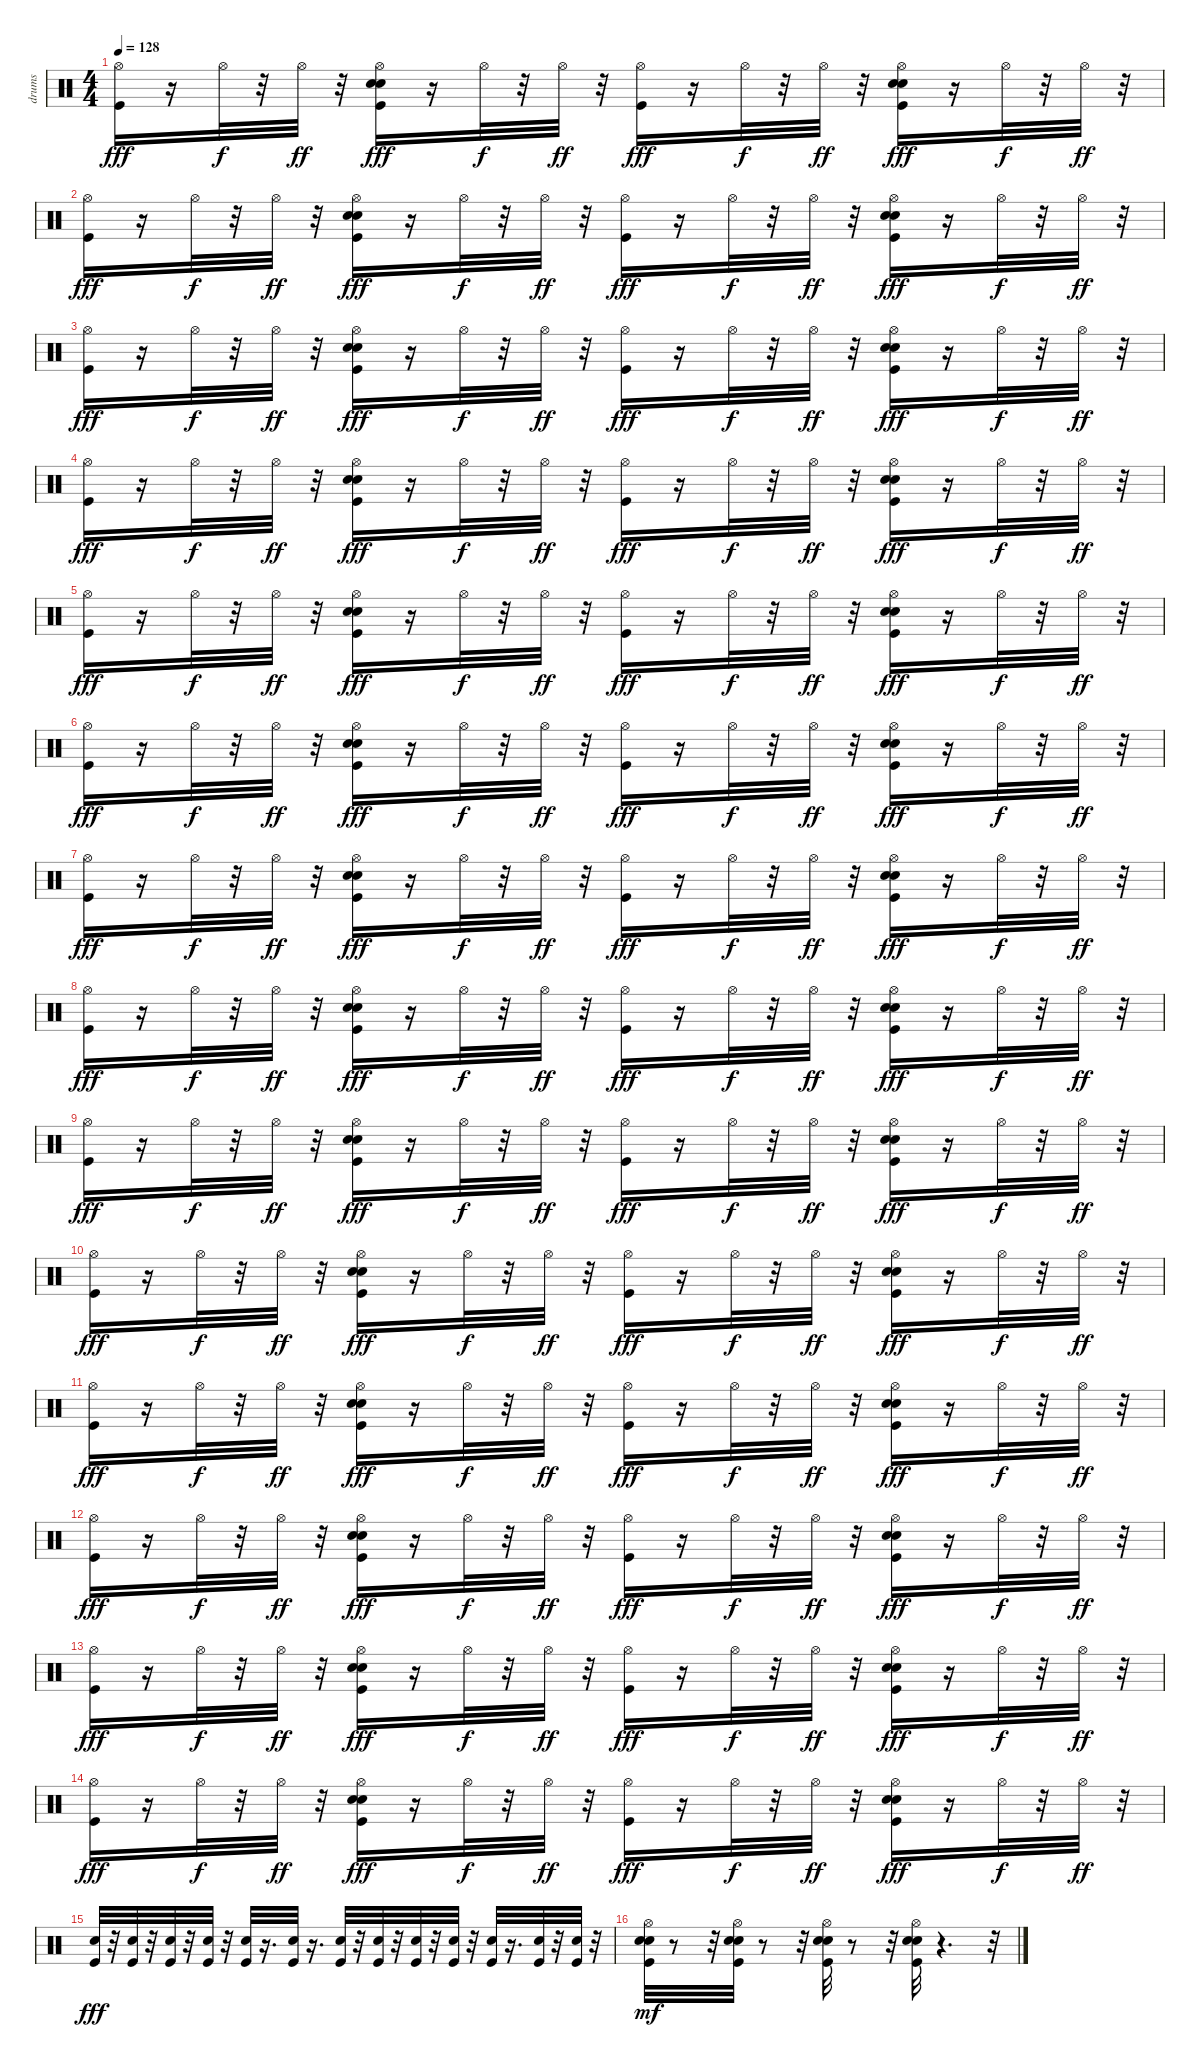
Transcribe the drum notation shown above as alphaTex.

\track ("drums" "drums") {instrument percussion}
\staff {score}
\articulation defaults
\ts (4 4)
\tempo 128
\clef neutral
\ks c
("Hi-Hat (open)" "Kick (hit)").16{dy fff} r.16 "Hi-Hat (open)".32{dy f} r.32 "Hi-Hat (open)".32{dy ff} r.32 ("Snare (hit) 2" "Electric Snare (hit)" "Kick (hit)" "Hi-Hat (open)").16{dy fff} r.16 "Hi-Hat (open)".32{dy f} r.32 "Hi-Hat (open)".32{dy ff} r.32 ("Kick (hit)" "Hi-Hat (open)").16{dy fff} r.16 "Hi-Hat (open)".32{dy f} r.32 "Hi-Hat (open)".32{dy ff} r.32 ("Kick (hit)" "Snare (hit) 2" "Electric Snare (hit)" "Hi-Hat (open)").16{dy fff} r.16 "Hi-Hat (open)".32{dy f} r.32 "Hi-Hat (open)".32{dy ff} r.32 |
("Hi-Hat (open)" "Kick (hit)").16{dy fff} r.16 "Hi-Hat (open)".32{dy f} r.32 "Hi-Hat (open)".32{dy ff} r.32 ("Snare (hit) 2" "Electric Snare (hit)" "Kick (hit)" "Hi-Hat (open)").16{dy fff} r.16 "Hi-Hat (open)".32{dy f} r.32 "Hi-Hat (open)".32{dy ff} r.32 ("Kick (hit)" "Hi-Hat (open)").16{dy fff} r.16 "Hi-Hat (open)".32{dy f} r.32 "Hi-Hat (open)".32{dy ff} r.32 ("Kick (hit)" "Snare (hit) 2" "Electric Snare (hit)" "Hi-Hat (open)").16{dy fff} r.16 "Hi-Hat (open)".32{dy f} r.32 "Hi-Hat (open)".32{dy ff} r.32 |
("Hi-Hat (open)" "Kick (hit)").16{dy fff} r.16 "Hi-Hat (open)".32{dy f} r.32 "Hi-Hat (open)".32{dy ff} r.32 ("Snare (hit) 2" "Electric Snare (hit)" "Kick (hit)" "Hi-Hat (open)").16{dy fff} r.16 "Hi-Hat (open)".32{dy f} r.32 "Hi-Hat (open)".32{dy ff} r.32 ("Kick (hit)" "Hi-Hat (open)").16{dy fff} r.16 "Hi-Hat (open)".32{dy f} r.32 "Hi-Hat (open)".32{dy ff} r.32 ("Kick (hit)" "Snare (hit) 2" "Electric Snare (hit)" "Hi-Hat (open)").16{dy fff} r.16 "Hi-Hat (open)".32{dy f} r.32 "Hi-Hat (open)".32{dy ff} r.32 |
("Hi-Hat (open)" "Kick (hit)").16{dy fff} r.16 "Hi-Hat (open)".32{dy f} r.32 "Hi-Hat (open)".32{dy ff} r.32 ("Snare (hit) 2" "Electric Snare (hit)" "Kick (hit)" "Hi-Hat (open)").16{dy fff} r.16 "Hi-Hat (open)".32{dy f} r.32 "Hi-Hat (open)".32{dy ff} r.32 ("Kick (hit)" "Hi-Hat (open)").16{dy fff} r.16 "Hi-Hat (open)".32{dy f} r.32 "Hi-Hat (open)".32{dy ff} r.32 ("Kick (hit)" "Snare (hit) 2" "Electric Snare (hit)" "Hi-Hat (open)").16{dy fff} r.16 "Hi-Hat (open)".32{dy f} r.32 "Hi-Hat (open)".32{dy ff} r.32 |
("Hi-Hat (open)" "Kick (hit)").16{dy fff} r.16 "Hi-Hat (open)".32{dy f} r.32 "Hi-Hat (open)".32{dy ff} r.32 ("Snare (hit) 2" "Electric Snare (hit)" "Kick (hit)" "Hi-Hat (open)").16{dy fff} r.16 "Hi-Hat (open)".32{dy f} r.32 "Hi-Hat (open)".32{dy ff} r.32 ("Kick (hit)" "Hi-Hat (open)").16{dy fff} r.16 "Hi-Hat (open)".32{dy f} r.32 "Hi-Hat (open)".32{dy ff} r.32 ("Kick (hit)" "Snare (hit) 2" "Electric Snare (hit)" "Hi-Hat (open)").16{dy fff} r.16 "Hi-Hat (open)".32{dy f} r.32 "Hi-Hat (open)".32{dy ff} r.32 |
("Hi-Hat (open)" "Kick (hit)").16{dy fff} r.16 "Hi-Hat (open)".32{dy f} r.32 "Hi-Hat (open)".32{dy ff} r.32 ("Snare (hit) 2" "Electric Snare (hit)" "Kick (hit)" "Hi-Hat (open)").16{dy fff} r.16 "Hi-Hat (open)".32{dy f} r.32 "Hi-Hat (open)".32{dy ff} r.32 ("Kick (hit)" "Hi-Hat (open)").16{dy fff} r.16 "Hi-Hat (open)".32{dy f} r.32 "Hi-Hat (open)".32{dy ff} r.32 ("Kick (hit)" "Snare (hit) 2" "Electric Snare (hit)" "Hi-Hat (open)").16{dy fff} r.16 "Hi-Hat (open)".32{dy f} r.32 "Hi-Hat (open)".32{dy ff} r.32 |
("Hi-Hat (open)" "Kick (hit)").16{dy fff} r.16 "Hi-Hat (open)".32{dy f} r.32 "Hi-Hat (open)".32{dy ff} r.32 ("Snare (hit) 2" "Electric Snare (hit)" "Kick (hit)" "Hi-Hat (open)").16{dy fff} r.16 "Hi-Hat (open)".32{dy f} r.32 "Hi-Hat (open)".32{dy ff} r.32 ("Kick (hit)" "Hi-Hat (open)").16{dy fff} r.16 "Hi-Hat (open)".32{dy f} r.32 "Hi-Hat (open)".32{dy ff} r.32 ("Kick (hit)" "Snare (hit) 2" "Electric Snare (hit)" "Hi-Hat (open)").16{dy fff} r.16 "Hi-Hat (open)".32{dy f} r.32 "Hi-Hat (open)".32{dy ff} r.32 |
("Hi-Hat (open)" "Kick (hit)").16{dy fff} r.16 "Hi-Hat (open)".32{dy f} r.32 "Hi-Hat (open)".32{dy ff} r.32 ("Snare (hit) 2" "Electric Snare (hit)" "Kick (hit)" "Hi-Hat (open)").16{dy fff} r.16 "Hi-Hat (open)".32{dy f} r.32 "Hi-Hat (open)".32{dy ff} r.32 ("Kick (hit)" "Hi-Hat (open)").16{dy fff} r.16 "Hi-Hat (open)".32{dy f} r.32 "Hi-Hat (open)".32{dy ff} r.32 ("Kick (hit)" "Snare (hit) 2" "Electric Snare (hit)" "Hi-Hat (open)").16{dy fff} r.16 "Hi-Hat (open)".32{dy f} r.32 "Hi-Hat (open)".32{dy ff} r.32 |
("Hi-Hat (open)" "Kick (hit)").16{dy fff} r.16 "Hi-Hat (open)".32{dy f} r.32 "Hi-Hat (open)".32{dy ff} r.32 ("Snare (hit) 2" "Electric Snare (hit)" "Kick (hit)" "Hi-Hat (open)").16{dy fff} r.16 "Hi-Hat (open)".32{dy f} r.32 "Hi-Hat (open)".32{dy ff} r.32 ("Kick (hit)" "Hi-Hat (open)").16{dy fff} r.16 "Hi-Hat (open)".32{dy f} r.32 "Hi-Hat (open)".32{dy ff} r.32 ("Kick (hit)" "Snare (hit) 2" "Electric Snare (hit)" "Hi-Hat (open)").16{dy fff} r.16 "Hi-Hat (open)".32{dy f} r.32 "Hi-Hat (open)".32{dy ff} r.32 |
("Hi-Hat (open)" "Kick (hit)").16{dy fff} r.16 "Hi-Hat (open)".32{dy f} r.32 "Hi-Hat (open)".32{dy ff} r.32 ("Snare (hit) 2" "Electric Snare (hit)" "Kick (hit)" "Hi-Hat (open)").16{dy fff} r.16 "Hi-Hat (open)".32{dy f} r.32 "Hi-Hat (open)".32{dy ff} r.32 ("Kick (hit)" "Hi-Hat (open)").16{dy fff} r.16 "Hi-Hat (open)".32{dy f} r.32 "Hi-Hat (open)".32{dy ff} r.32 ("Kick (hit)" "Snare (hit) 2" "Electric Snare (hit)" "Hi-Hat (open)").16{dy fff} r.16 "Hi-Hat (open)".32{dy f} r.32 "Hi-Hat (open)".32{dy ff} r.32 |
("Hi-Hat (open)" "Kick (hit)").16{dy fff} r.16 "Hi-Hat (open)".32{dy f} r.32 "Hi-Hat (open)".32{dy ff} r.32 ("Snare (hit) 2" "Electric Snare (hit)" "Kick (hit)" "Hi-Hat (open)").16{dy fff} r.16 "Hi-Hat (open)".32{dy f} r.32 "Hi-Hat (open)".32{dy ff} r.32 ("Kick (hit)" "Hi-Hat (open)").16{dy fff} r.16 "Hi-Hat (open)".32{dy f} r.32 "Hi-Hat (open)".32{dy ff} r.32 ("Kick (hit)" "Snare (hit) 2" "Electric Snare (hit)" "Hi-Hat (open)").16{dy fff} r.16 "Hi-Hat (open)".32{dy f} r.32 "Hi-Hat (open)".32{dy ff} r.32 |
("Hi-Hat (open)" "Kick (hit)").16{dy fff} r.16 "Hi-Hat (open)".32{dy f} r.32 "Hi-Hat (open)".32{dy ff} r.32 ("Snare (hit) 2" "Electric Snare (hit)" "Kick (hit)" "Hi-Hat (open)").16{dy fff} r.16 "Hi-Hat (open)".32{dy f} r.32 "Hi-Hat (open)".32{dy ff} r.32 ("Kick (hit)" "Hi-Hat (open)").16{dy fff} r.16 "Hi-Hat (open)".32{dy f} r.32 "Hi-Hat (open)".32{dy ff} r.32 ("Kick (hit)" "Snare (hit) 2" "Electric Snare (hit)" "Hi-Hat (open)").16{dy fff} r.16 "Hi-Hat (open)".32{dy f} r.32 "Hi-Hat (open)".32{dy ff} r.32 |
("Hi-Hat (open)" "Kick (hit)").16{dy fff} r.16 "Hi-Hat (open)".32{dy f} r.32 "Hi-Hat (open)".32{dy ff} r.32 ("Snare (hit) 2" "Electric Snare (hit)" "Kick (hit)" "Hi-Hat (open)").16{dy fff} r.16 "Hi-Hat (open)".32{dy f} r.32 "Hi-Hat (open)".32{dy ff} r.32 ("Kick (hit)" "Hi-Hat (open)").16{dy fff} r.16 "Hi-Hat (open)".32{dy f} r.32 "Hi-Hat (open)".32{dy ff} r.32 ("Kick (hit)" "Snare (hit) 2" "Electric Snare (hit)" "Hi-Hat (open)").16{dy fff} r.16 "Hi-Hat (open)".32{dy f} r.32 "Hi-Hat (open)".32{dy ff} r.32 |
("Hi-Hat (open)" "Kick (hit)").16{dy fff} r.16 "Hi-Hat (open)".32{dy f} r.32 "Hi-Hat (open)".32{dy ff} r.32 ("Snare (hit) 2" "Electric Snare (hit)" "Kick (hit)" "Hi-Hat (open)").16{dy fff} r.16 "Hi-Hat (open)".32{dy f} r.32 "Hi-Hat (open)".32{dy ff} r.32 ("Kick (hit)" "Hi-Hat (open)").16{dy fff} r.16 "Hi-Hat (open)".32{dy f} r.32 "Hi-Hat (open)".32{dy ff} r.32 ("Kick (hit)" "Snare (hit) 2" "Electric Snare (hit)" "Hi-Hat (open)").16{dy fff} r.16 "Hi-Hat (open)".32{dy f} r.32 "Hi-Hat (open)".32{dy ff} r.32 |
("Kick (hit)" "Electric Snare (hit)").32{dy fff} r.32 ("Kick (hit)" "Electric Snare (hit)").32 r.32 ("Kick (hit)" "Electric Snare (hit)").32 r.32 ("Kick (hit)" "Electric Snare (hit)").32 r.32 ("Kick (hit)" "Electric Snare (hit)").32 r.16{d} ("Kick (hit)" "Electric Snare (hit)").32 r.16{d} ("Kick (hit)" "Electric Snare (hit)").32 r.32 ("Kick (hit)" "Electric Snare (hit)").32 r.32 ("Kick (hit)" "Electric Snare (hit)").32 r.32 ("Kick (hit)" "Electric Snare (hit)").32 r.32 ("Kick (hit)" "Electric Snare (hit)").32 r.16{d} ("Kick (hit)" "Electric Snare (hit)").32 r.32 ("Kick (hit)" "Electric Snare (hit)").32 r.32 |
("Kick (hit)" "Electric Snare (hit)" "Snare (hit) 2" "Hi-Hat (open)").32{dy mf} r.8 r.32 ("Kick (hit)" "Electric Snare (hit)" "Snare (hit) 2" "Hi-Hat (open)").32 r.8 r.32 ("Kick (hit)" "Electric Snare (hit)" "Snare (hit) 2" "Hi-Hat (open)").32 r.8 r.32 ("Kick (hit)" "Electric Snare (hit)" "Snare (hit) 2" "Hi-Hat (open)").32 r.4{d} r.32
